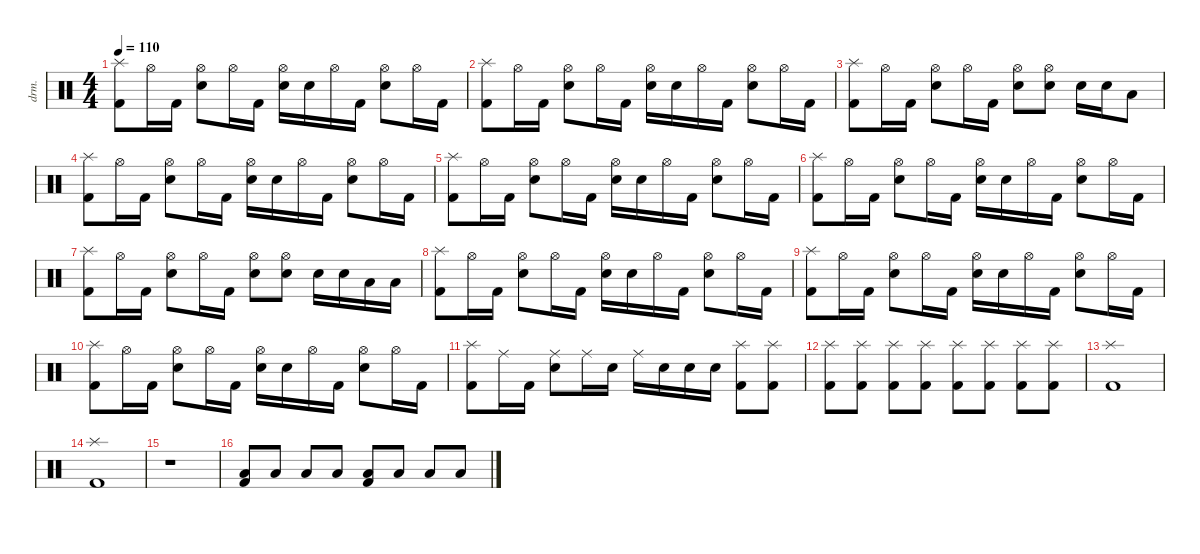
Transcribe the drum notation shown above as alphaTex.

\defaultSystemsLayout 4
\hideDynamics
\bracketExtendMode nobrackets
\track ("Drumkit" "drm.") {instrument percussion}
\staff {score}
\articulation defaults
\ts (4 4)
\tempo 110
\clef neutral
\ks c
("Splash (hit)" "Kick (hit) 2").8{dy f beam Down} "Hi-Hat (open)".16{beam Down} "Kick (hit) 2".16{beam Down} ("Snare (hit) 2" "Hi-Hat (open)").8{beam Down} "Hi-Hat (open)".16{beam Down} "Kick (hit) 2".16{beam Down} ("Snare (hit) 2" "Hi-Hat (open)").16{beam Down} "Snare (hit) 2".16{beam Down} "Hi-Hat (open)".16{beam Down} "Kick (hit) 2".16{beam Down} ("Hi-Hat (open)" "Snare (hit) 2").8{beam Down} "Hi-Hat (open)".16{beam Down} "Kick (hit) 2".16{beam Down} |
("Splash (hit)" "Kick (hit) 2").8{beam Down} "Hi-Hat (open)".16{beam Down} "Kick (hit) 2".16{beam Down} ("Snare (hit) 2" "Hi-Hat (open)").8{beam Down} "Hi-Hat (open)".16{beam Down} "Kick (hit) 2".16{beam Down} ("Snare (hit) 2" "Hi-Hat (open)").16{beam Down} "Snare (hit) 2".16{beam Down} "Hi-Hat (open)".16{beam Down} "Kick (hit) 2".16{beam Down} ("Hi-Hat (open)" "Snare (hit) 2").8{beam Down} "Hi-Hat (open)".16{beam Down} "Kick (hit) 2".16{beam Down} |
("Splash (hit)" "Kick (hit) 2").8{beam Down} "Hi-Hat (open)".16{beam Down} "Kick (hit) 2".16{beam Down} ("Hi-Hat (open)" "Snare (hit) 2").8{beam Down} "Hi-Hat (open)".16{beam Down} "Kick (hit) 2".16{beam Down} ("Hi-Hat (open)" "Snare (hit) 2").8{beam Down} ("Hi-Hat (open)" "Snare (hit) 2").8{beam Down} "Snare (hit) 2".16{beam Down} "Snare (hit) 2".16{beam Down} "Low Tom (hit)".8{beam Down} |
("Splash (hit)" "Kick (hit) 2").8{beam Down} "Hi-Hat (open)".16{beam Down} "Kick (hit) 2".16{beam Down} ("Snare (hit) 2" "Hi-Hat (open)").8{beam Down} "Hi-Hat (open)".16{beam Down} "Kick (hit) 2".16{beam Down} ("Snare (hit) 2" "Hi-Hat (open)").16{beam Down} "Snare (hit) 2".16{beam Down} "Hi-Hat (open)".16{beam Down} "Kick (hit) 2".16{beam Down} ("Hi-Hat (open)" "Snare (hit) 2").8{beam Down} "Hi-Hat (open)".16{beam Down} "Kick (hit) 2".16{beam Down} |
("Splash (hit)" "Kick (hit) 2").8{beam Down} "Hi-Hat (open)".16{beam Down} "Kick (hit) 2".16{beam Down} ("Snare (hit) 2" "Hi-Hat (open)").8{beam Down} "Hi-Hat (open)".16{beam Down} "Kick (hit) 2".16{beam Down} ("Snare (hit) 2" "Hi-Hat (open)").16{beam Down} "Snare (hit) 2".16{beam Down} "Hi-Hat (open)".16{beam Down} "Kick (hit) 2".16{beam Down} ("Hi-Hat (open)" "Snare (hit) 2").8{beam Down} "Hi-Hat (open)".16{beam Down} "Kick (hit) 2".16{beam Down} |
("Splash (hit)" "Kick (hit) 2").8{beam Down} "Hi-Hat (open)".16{beam Down} "Kick (hit) 2".16{beam Down} ("Snare (hit) 2" "Hi-Hat (open)").8{beam Down} "Hi-Hat (open)".16{beam Down} "Kick (hit) 2".16{beam Down} ("Snare (hit) 2" "Hi-Hat (open)").16{beam Down} "Snare (hit) 2".16{beam Down} "Hi-Hat (open)".16{beam Down} "Kick (hit) 2".16{beam Down} ("Hi-Hat (open)" "Snare (hit) 2").8{beam Down} "Hi-Hat (open)".16{beam Down} "Kick (hit) 2".16{beam Down} |
("Splash (hit)" "Kick (hit) 2").8{beam Down} "Hi-Hat (open)".16{beam Down} "Kick (hit) 2".16{beam Down} ("Hi-Hat (open)" "Snare (hit) 2").8{beam Down} "Hi-Hat (open)".16{beam Down} "Kick (hit) 2".16{beam Down} ("Hi-Hat (open)" "Snare (hit) 2").8{beam Down} ("Hi-Hat (open)" "Snare (hit) 2").8{beam Down} "Snare (hit) 2".16{beam Down} "Snare (hit) 2".16{beam Down} "Low Tom (hit)".16{beam Down} "Low Tom (hit)".16{beam Down} |
("Splash (hit)" "Kick (hit) 2").8{beam Down} "Hi-Hat (open)".16{beam Down} "Kick (hit) 2".16{beam Down} ("Snare (hit) 2" "Hi-Hat (open)").8{beam Down} "Hi-Hat (open)".16{beam Down} "Kick (hit) 2".16{beam Down} ("Snare (hit) 2" "Hi-Hat (open)").16{beam Down} "Snare (hit) 2".16{beam Down} "Hi-Hat (open)".16{beam Down} "Kick (hit) 2".16{beam Down} ("Hi-Hat (open)" "Snare (hit) 2").8{beam Down} "Hi-Hat (open)".16{beam Down} "Kick (hit) 2".16{beam Down} |
("Splash (hit)" "Kick (hit) 2").8{beam Down} "Hi-Hat (open)".16{beam Down} "Kick (hit) 2".16{beam Down} ("Snare (hit) 2" "Hi-Hat (open)").8{beam Down} "Hi-Hat (open)".16{beam Down} "Kick (hit) 2".16{beam Down} ("Snare (hit) 2" "Hi-Hat (open)").16{beam Down} "Snare (hit) 2".16{beam Down} "Hi-Hat (open)".16{beam Down} "Kick (hit) 2".16{beam Down} ("Hi-Hat (open)" "Snare (hit) 2").8{beam Down} "Hi-Hat (open)".16{beam Down} "Kick (hit) 2".16{beam Down} |
("Splash (hit)" "Kick (hit) 2").8{beam Down} "Hi-Hat (open)".16{beam Down} "Kick (hit) 2".16{beam Down} ("Snare (hit) 2" "Hi-Hat (open)").8{beam Down} "Hi-Hat (open)".16{beam Down} "Kick (hit) 2".16{beam Down} ("Snare (hit) 2" "Hi-Hat (open)").16{beam Down} "Snare (hit) 2".16{beam Down} "Hi-Hat (open)".16{beam Down} "Kick (hit) 2".16{beam Down} ("Hi-Hat (open)" "Snare (hit) 2").8{beam Down} "Hi-Hat (open)".16{beam Down} "Kick (hit) 2".16{beam Down} |
("Kick (hit) 2" "Splash (hit)").8{beam Down} "Ride (middle)".16{beam Down} "Kick (hit) 2".16{beam Down} ("Snare (hit) 2" "Ride (middle)").8{beam Down} "Ride (middle)".16{beam Down} "Snare (hit) 2".16{beam Down} "Ride (middle)".16{beam Down} "Snare (hit) 2".16{beam Down} "Snare (hit) 2".16{beam Down} "Snare (hit) 2".16{beam Down} ("Splash (hit)" "Kick (hit) 2").8{beam Down} ("Kick (hit) 2" "Splash (hit)").8{beam Down} |
("Splash (hit)" "Kick (hit) 2").8{beam Down} ("Splash (hit)" "Kick (hit) 2").8{beam Down} ("Splash (hit)" "Kick (hit) 2").8{beam Down} ("Splash (hit)" "Kick (hit) 2").8{beam Down} ("Splash (hit)" "Kick (hit) 2").8{beam Down} ("Splash (hit)" "Kick (hit) 2").8{beam Down} ("Splash (hit)" "Kick (hit) 2").8{beam Down} ("Splash (hit)" "Kick (hit) 2").8{beam Down} |
("Splash (hit)" "Kick (hit) 2").1{beam Down} |
("Splash (hit)" "Kick (hit) 2").1{beam Down} |
r.1{beam Down} |
("Kick (hit) 2" "Low Tom (hit)").8{dy mf beam Up} "Low Tom (hit)".8{beam Up} "Low Tom (hit)".8{beam Up} "Low Tom (hit)".8{beam Up} ("Low Tom (hit)" "Kick (hit) 2").8{beam Up} "Low Tom (hit)".8{beam Up} "Low Tom (hit)".8{beam Up} "Low Tom (hit)".8{beam Up}
